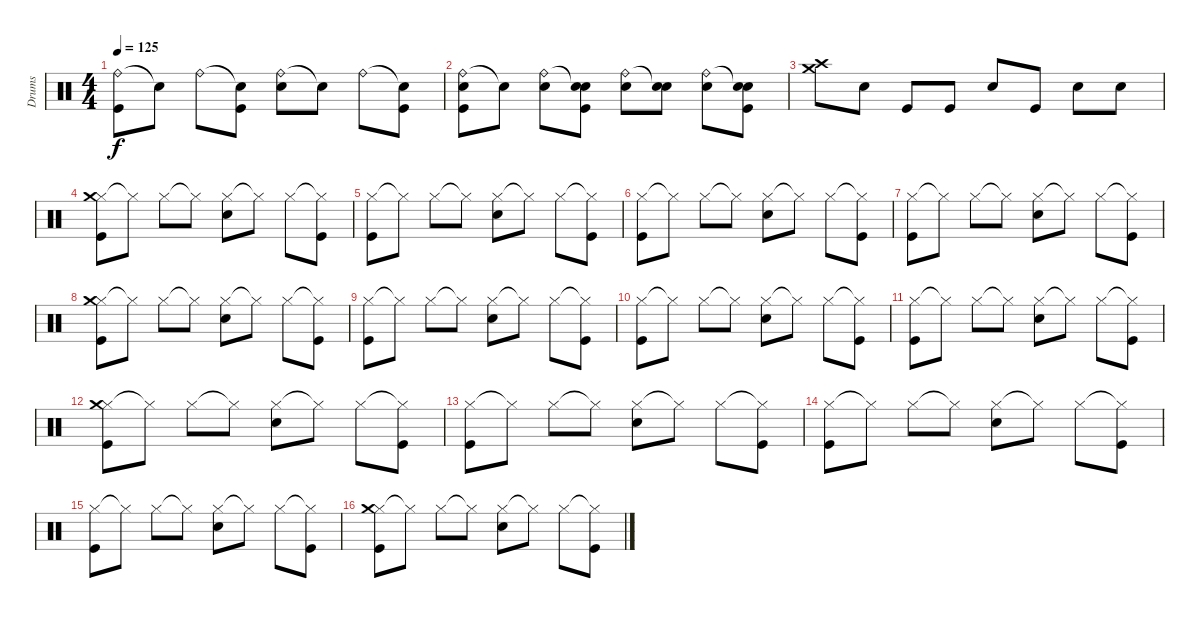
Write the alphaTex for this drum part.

\track ("Drums" "Drums") {instrument percussion}
\staff {score}
\articulation defaults
\ts (4 4)
\tempo 125
\clef neutral
\ks c
("Ride (bell)" "Kick (hit)").8{dy f} "Snare (hit)"{t}.8 "Ride (bell)".8 ("Snare (hit)"{t} "Kick (hit)").8 ("Ride (bell)" "Snare (hit) 2").8 "Snare (hit)"{t}.8 "Ride (bell)".8 ("Snare (hit)"{t} "Kick (hit)").8 |
("Ride (bell)" "Snare (hit) 2" "Kick (hit)").8 "Snare (hit)"{t}.8 ("Ride (bell)" "Snare (hit) 2").8 ("Snare (hit)"{t} "Kick (hit)" "Snare (hit) 2").8 ("Ride (bell)" "Snare (hit) 2").8 ("Snare (hit)"{t} "Snare (hit) 2").8 ("Ride (bell)" "Snare (hit) 2").8 ("Snare (hit)"{t} "Snare (hit) 2" "Kick (hit)").8 |
("Crash medium (hit)" "Crash high (hit)").8 "Snare (hit) 2".8 "Kick (hit)".8 "Kick (hit)".8 "Snare (hit) 2".8 "Kick (hit)".8 "Snare (hit) 2".8 "Snare (hit) 2".8 |
("Hi-Hat (closed)" "Kick (hit)" "Crash medium (hit)").8 "Hi-Hat (closed)"{t}.8 "Hi-Hat (closed)".8 "Hi-Hat (closed)"{t}.8 ("Hi-Hat (closed)" "Snare (hit) 2").8 "Hi-Hat (closed)"{t}.8 "Hi-Hat (closed)".8 ("Hi-Hat (closed)"{t} "Kick (hit)").8 |
("Hi-Hat (closed)" "Kick (hit)").8 "Hi-Hat (closed)"{t}.8 "Hi-Hat (closed)".8 "Hi-Hat (closed)"{t}.8 ("Hi-Hat (closed)" "Snare (hit) 2").8 "Hi-Hat (closed)"{t}.8 "Hi-Hat (closed)".8 ("Hi-Hat (closed)"{t} "Kick (hit)").8 |
("Hi-Hat (closed)" "Kick (hit)").8 "Hi-Hat (closed)"{t}.8 "Hi-Hat (closed)".8 "Hi-Hat (closed)"{t}.8 ("Hi-Hat (closed)" "Snare (hit) 2").8 "Hi-Hat (closed)"{t}.8 "Hi-Hat (closed)".8 ("Hi-Hat (closed)"{t} "Kick (hit)").8 |
("Hi-Hat (closed)" "Kick (hit)").8 "Hi-Hat (closed)"{t}.8 "Hi-Hat (closed)".8 "Hi-Hat (closed)"{t}.8 ("Hi-Hat (closed)" "Snare (hit) 2").8 "Hi-Hat (closed)"{t}.8 "Hi-Hat (closed)".8 ("Hi-Hat (closed)"{t} "Kick (hit)").8 |
("Hi-Hat (closed)" "Kick (hit)" "Crash medium (hit)").8 "Hi-Hat (closed)"{t}.8 "Hi-Hat (closed)".8 "Hi-Hat (closed)"{t}.8 ("Hi-Hat (closed)" "Snare (hit) 2").8 "Hi-Hat (closed)"{t}.8 "Hi-Hat (closed)".8 ("Hi-Hat (closed)"{t} "Kick (hit)").8 |
("Hi-Hat (closed)" "Kick (hit)").8 "Hi-Hat (closed)"{t}.8 "Hi-Hat (closed)".8 "Hi-Hat (closed)"{t}.8 ("Hi-Hat (closed)" "Snare (hit) 2").8 "Hi-Hat (closed)"{t}.8 "Hi-Hat (closed)".8 ("Hi-Hat (closed)"{t} "Kick (hit)").8 |
("Hi-Hat (closed)" "Kick (hit)").8 "Hi-Hat (closed)"{t}.8 "Hi-Hat (closed)".8 "Hi-Hat (closed)"{t}.8 ("Hi-Hat (closed)" "Snare (hit) 2").8 "Hi-Hat (closed)"{t}.8 "Hi-Hat (closed)".8 ("Hi-Hat (closed)"{t} "Kick (hit)").8 |
("Hi-Hat (closed)" "Kick (hit)").8 "Hi-Hat (closed)"{t}.8 "Hi-Hat (closed)".8 "Hi-Hat (closed)"{t}.8 ("Hi-Hat (closed)" "Snare (hit) 2").8 "Hi-Hat (closed)"{t}.8 "Hi-Hat (closed)".8 ("Hi-Hat (closed)"{t} "Kick (hit)").8 |
("Hi-Hat (closed)" "Kick (hit)" "Crash medium (hit)").8 "Hi-Hat (closed)"{t}.8 "Hi-Hat (closed)".8 "Hi-Hat (closed)"{t}.8 ("Hi-Hat (closed)" "Snare (hit) 2").8 "Hi-Hat (closed)"{t}.8 "Hi-Hat (closed)".8 ("Hi-Hat (closed)"{t} "Kick (hit)").8 |
("Hi-Hat (closed)" "Kick (hit)").8 "Hi-Hat (closed)"{t}.8 "Hi-Hat (closed)".8 "Hi-Hat (closed)"{t}.8 ("Hi-Hat (closed)" "Snare (hit) 2").8 "Hi-Hat (closed)"{t}.8 "Hi-Hat (closed)".8 ("Hi-Hat (closed)"{t} "Kick (hit)").8 |
("Hi-Hat (closed)" "Kick (hit)").8 "Hi-Hat (closed)"{t}.8 "Hi-Hat (closed)".8 "Hi-Hat (closed)"{t}.8 ("Hi-Hat (closed)" "Snare (hit) 2").8 "Hi-Hat (closed)"{t}.8 "Hi-Hat (closed)".8 ("Hi-Hat (closed)"{t} "Kick (hit)").8 |
("Hi-Hat (closed)" "Kick (hit)").8 "Hi-Hat (closed)"{t}.8 "Hi-Hat (closed)".8 "Hi-Hat (closed)"{t}.8 ("Hi-Hat (closed)" "Snare (hit) 2").8 "Hi-Hat (closed)"{t}.8 "Hi-Hat (closed)".8 ("Hi-Hat (closed)"{t} "Kick (hit)").8 |
("Hi-Hat (closed)" "Kick (hit)" "Crash medium (hit)").8 "Hi-Hat (closed)"{t}.8 "Hi-Hat (closed)".8 "Hi-Hat (closed)"{t}.8 ("Hi-Hat (closed)" "Snare (hit) 2").8 "Hi-Hat (closed)"{t}.8 "Hi-Hat (closed)".8 ("Hi-Hat (closed)"{t} "Kick (hit)").8
